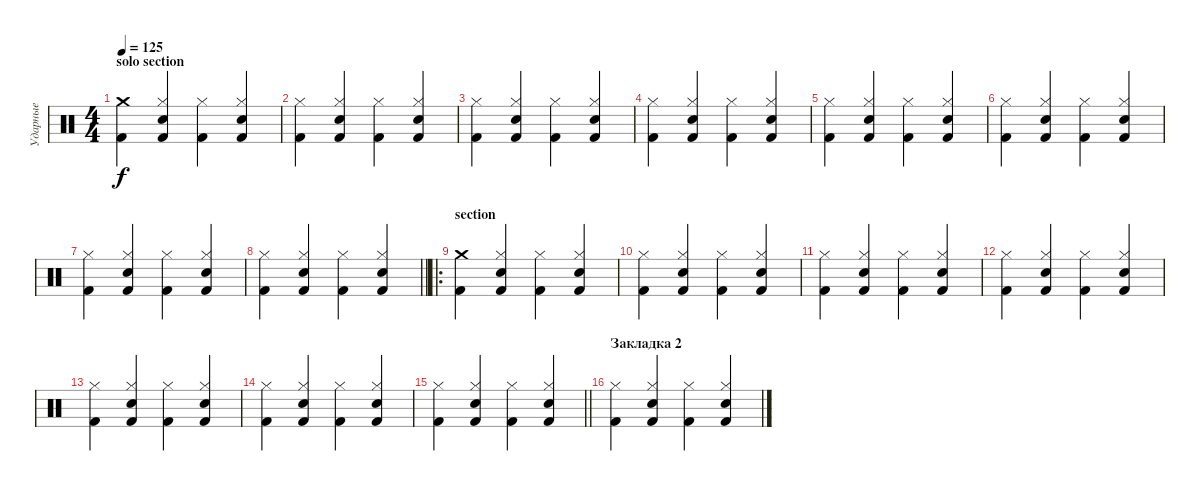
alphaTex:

\track ("Ударные" "Ударные") {instrument percussion}
\staff {score}
\articulation defaults
\ts (4 4)
\section ("" "solo section")
\tempo 125
\clef neutral
\ks c
("Crash medium (hit)" "Kick (hit) 2").4{dy f} ("Hi-Hat (closed)" "Electric Snare (hit)" "Kick (hit) 2").4 ("Hi-Hat (closed)" "Kick (hit) 2").4 ("Hi-Hat (closed)" "Electric Snare (hit)" "Kick (hit) 2").4 |
("Hi-Hat (closed)" "Kick (hit) 2").4 ("Hi-Hat (closed)" "Electric Snare (hit)" "Kick (hit) 2").4 ("Hi-Hat (closed)" "Kick (hit) 2").4 ("Hi-Hat (closed)" "Electric Snare (hit)" "Kick (hit) 2").4 |
("Hi-Hat (closed)" "Kick (hit) 2").4 ("Hi-Hat (closed)" "Electric Snare (hit)" "Kick (hit) 2").4 ("Hi-Hat (closed)" "Kick (hit) 2").4 ("Hi-Hat (closed)" "Electric Snare (hit)" "Kick (hit) 2").4 |
("Hi-Hat (closed)" "Kick (hit) 2").4 ("Hi-Hat (closed)" "Electric Snare (hit)" "Kick (hit) 2").4 ("Hi-Hat (closed)" "Kick (hit) 2").4 ("Hi-Hat (closed)" "Electric Snare (hit)" "Kick (hit) 2").4 |
("Hi-Hat (closed)" "Kick (hit) 2").4 ("Hi-Hat (closed)" "Electric Snare (hit)" "Kick (hit) 2").4 ("Hi-Hat (closed)" "Kick (hit) 2").4 ("Hi-Hat (closed)" "Electric Snare (hit)" "Kick (hit) 2").4 |
("Hi-Hat (closed)" "Kick (hit) 2").4 ("Hi-Hat (closed)" "Electric Snare (hit)" "Kick (hit) 2").4 ("Hi-Hat (closed)" "Kick (hit) 2").4 ("Hi-Hat (closed)" "Electric Snare (hit)" "Kick (hit) 2").4 |
("Hi-Hat (closed)" "Kick (hit) 2").4 ("Hi-Hat (closed)" "Electric Snare (hit)" "Kick (hit) 2").4 ("Hi-Hat (closed)" "Kick (hit) 2").4 ("Hi-Hat (closed)" "Electric Snare (hit)" "Kick (hit) 2").4 |
\barLineRight lightlight
("Hi-Hat (closed)" "Kick (hit) 2").4 ("Hi-Hat (closed)" "Electric Snare (hit)" "Kick (hit) 2").4 ("Hi-Hat (closed)" "Kick (hit) 2").4 ("Hi-Hat (closed)" "Electric Snare (hit)" "Kick (hit) 2").4 |
\ro
\section ("" "section")
("Crash medium (hit)" "Kick (hit) 2").4 ("Hi-Hat (closed)" "Electric Snare (hit)" "Kick (hit) 2").4 ("Hi-Hat (closed)" "Kick (hit) 2").4 ("Hi-Hat (closed)" "Electric Snare (hit)" "Kick (hit) 2").4 |
("Hi-Hat (closed)" "Kick (hit) 2").4 ("Hi-Hat (closed)" "Electric Snare (hit)" "Kick (hit) 2").4 ("Hi-Hat (closed)" "Kick (hit) 2").4 ("Hi-Hat (closed)" "Electric Snare (hit)" "Kick (hit) 2").4 |
("Hi-Hat (closed)" "Kick (hit) 2").4 ("Hi-Hat (closed)" "Electric Snare (hit)" "Kick (hit) 2").4 ("Hi-Hat (closed)" "Kick (hit) 2").4 ("Hi-Hat (closed)" "Electric Snare (hit)" "Kick (hit) 2").4 |
("Hi-Hat (closed)" "Kick (hit) 2").4 ("Hi-Hat (closed)" "Electric Snare (hit)" "Kick (hit) 2").4 ("Hi-Hat (closed)" "Kick (hit) 2").4 ("Hi-Hat (closed)" "Electric Snare (hit)" "Kick (hit) 2").4 |
("Hi-Hat (closed)" "Kick (hit) 2").4 ("Hi-Hat (closed)" "Electric Snare (hit)" "Kick (hit) 2").4 ("Hi-Hat (closed)" "Kick (hit) 2").4 ("Hi-Hat (closed)" "Electric Snare (hit)" "Kick (hit) 2").4 |
("Hi-Hat (closed)" "Kick (hit) 2").4 ("Hi-Hat (closed)" "Electric Snare (hit)" "Kick (hit) 2").4 ("Hi-Hat (closed)" "Kick (hit) 2").4 ("Hi-Hat (closed)" "Electric Snare (hit)" "Kick (hit) 2").4 |
\barLineRight lightlight
("Hi-Hat (closed)" "Kick (hit) 2").4 ("Hi-Hat (closed)" "Electric Snare (hit)" "Kick (hit) 2").4 ("Hi-Hat (closed)" "Kick (hit) 2").4 ("Hi-Hat (closed)" "Electric Snare (hit)" "Kick (hit) 2").4 |
\section ("" "Закладка 2")
("Hi-Hat (closed)" "Kick (hit) 2").4 ("Hi-Hat (closed)" "Electric Snare (hit)" "Kick (hit) 2").4 ("Hi-Hat (closed)" "Kick (hit) 2").4 ("Hi-Hat (closed)" "Electric Snare (hit)" "Kick (hit) 2").4
